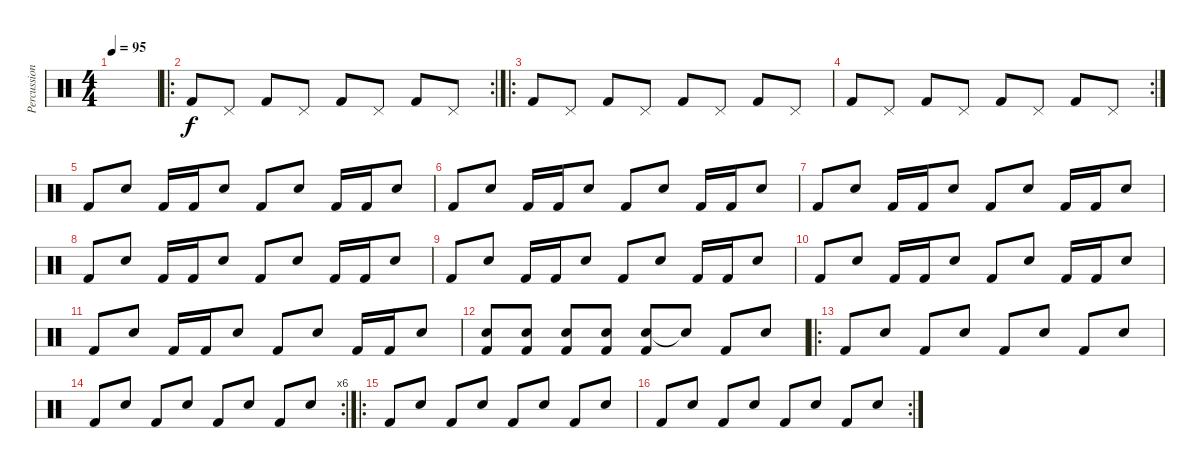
\track ("Percussion" "Percussion") {instrument percussion}
\staff {score}
\articulation defaults
\ts (4 4)
\tempo 95
\clef neutral
\ks c
|
\ro
\rc 2 "Kick (hit) 2".8 "Pedal Hi-Hat (hit)".8 "Kick (hit) 2".8 "Pedal Hi-Hat (hit)".8 "Kick (hit) 2".8 "Pedal Hi-Hat (hit)".8 "Kick (hit) 2".8 "Pedal Hi-Hat (hit)".8
|
\ro "Kick (hit) 2".8 "Pedal Hi-Hat (hit)".8 "Kick (hit) 2".8 "Pedal Hi-Hat (hit)".8 "Kick (hit) 2".8 "Pedal Hi-Hat (hit)".8 "Kick (hit) 2".8 "Pedal Hi-Hat (hit)".8
|
\rc 2 "Kick (hit) 2".8 "Pedal Hi-Hat (hit)".8 "Kick (hit) 2".8 "Pedal Hi-Hat (hit)".8 "Kick (hit) 2".8 "Pedal Hi-Hat (hit)".8 "Kick (hit) 2".8 "Pedal Hi-Hat (hit)".8
|
"Kick (hit) 2".8 "Snare (hit) 2".8 "Kick (hit) 2".16 "Kick (hit) 2".16 "Snare (hit) 2".8 "Kick (hit) 2".8 "Snare (hit) 2".8 "Kick (hit) 2".16 "Kick (hit) 2".16 "Snare (hit) 2".8 |
"Kick (hit) 2".8 "Snare (hit) 2".8 "Kick (hit) 2".16 "Kick (hit) 2".16 "Snare (hit) 2".8 "Kick (hit) 2".8 "Snare (hit) 2".8 "Kick (hit) 2".16 "Kick (hit) 2".16 "Snare (hit) 2".8 |
"Kick (hit) 2".8 "Snare (hit) 2".8 "Kick (hit) 2".16 "Kick (hit) 2".16 "Snare (hit) 2".8 "Kick (hit) 2".8 "Snare (hit) 2".8 "Kick (hit) 2".16 "Kick (hit) 2".16 "Snare (hit) 2".8 |
"Kick (hit) 2".8 "Snare (hit) 2".8 "Kick (hit) 2".16 "Kick (hit) 2".16 "Snare (hit) 2".8 "Kick (hit) 2".8 "Snare (hit) 2".8 "Kick (hit) 2".16 "Kick (hit) 2".16 "Snare (hit) 2".8 |
"Kick (hit) 2".8 "Snare (hit) 2".8 "Kick (hit) 2".16 "Kick (hit) 2".16 "Snare (hit) 2".8 "Kick (hit) 2".8 "Snare (hit) 2".8 "Kick (hit) 2".16 "Kick (hit) 2".16 "Snare (hit) 2".8 |
"Kick (hit) 2".8 "Snare (hit) 2".8 "Kick (hit) 2".16 "Kick (hit) 2".16 "Snare (hit) 2".8 "Kick (hit) 2".8 "Snare (hit) 2".8 "Kick (hit) 2".16 "Kick (hit) 2".16 "Snare (hit) 2".8 |
"Kick (hit) 2".8 "Snare (hit) 2".8 "Kick (hit) 2".16 "Kick (hit) 2".16 "Snare (hit) 2".8 "Kick (hit) 2".8 "Snare (hit) 2".8 "Kick (hit) 2".16 "Kick (hit) 2".16 "Snare (hit) 2".8 |
("Snare (hit) 2" "Kick (hit) 2").8 ("Snare (hit) 2" "Kick (hit) 2").8 ("Snare (hit) 2" "Kick (hit) 2").8 ("Snare (hit) 2" "Kick (hit) 2").8 ("Snare (hit) 2" "Kick (hit) 2").8 "Snare (hit)"{t}.8 "Kick (hit) 2".8 "Snare (hit) 2".8 |
\ro "Kick (hit) 2".8 "Snare (hit) 2".8 "Kick (hit) 2".8 "Snare (hit) 2".8 "Kick (hit) 2".8 "Snare (hit) 2".8 "Kick (hit) 2".8 "Snare (hit) 2".8
|
\rc 6 "Kick (hit) 2".8 "Snare (hit) 2".8 "Kick (hit) 2".8 "Snare (hit) 2".8 "Kick (hit) 2".8 "Snare (hit) 2".8 "Kick (hit) 2".8 "Snare (hit) 2".8
|
\ro "Kick (hit) 2".8 "Snare (hit) 2".8 "Kick (hit) 2".8 "Snare (hit) 2".8 "Kick (hit) 2".8 "Snare (hit) 2".8 "Kick (hit) 2".8 "Snare (hit) 2".8
|
\rc 2 "Kick (hit) 2".8 "Snare (hit) 2".8 "Kick (hit) 2".8 "Snare (hit) 2".8 "Kick (hit) 2".8 "Snare (hit) 2".8 "Kick (hit) 2".8 "Snare (hit) 2".8
